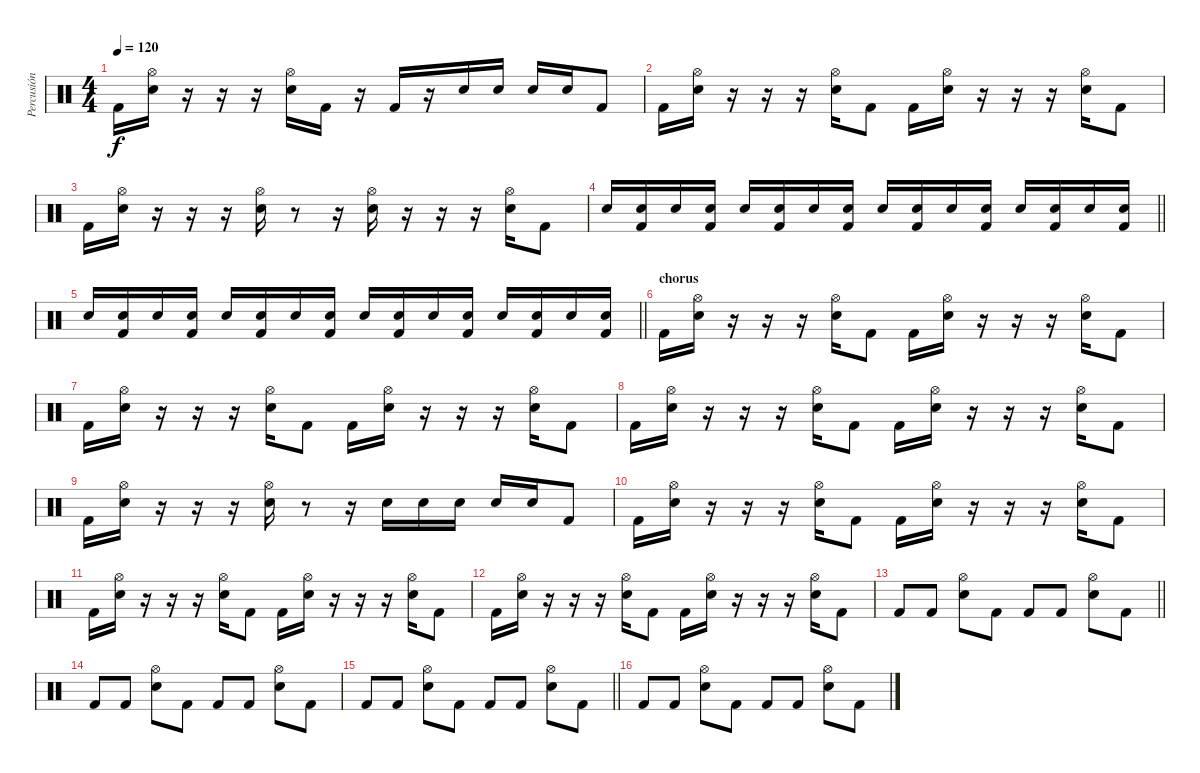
\track ("Percusión" "Percusión") {instrument percussion}
\staff {score}
\articulation defaults
\ts (4 4)
\tempo 120
\clef neutral
\ks c "Kick (hit) 2".16{dy f}
("Hi-Hat (open)" "Electric Snare (hit)").16 r.16 r.16 r.16 ("Hi-Hat (open)" "Electric Snare (hit)").16 "Kick (hit) 2".16 r.16 "Kick (hit) 2".16 r.16 "Electric Snare (hit)".16 "Electric Snare (hit)".16 "Electric Snare (hit)".16 "Electric Snare (hit)".16 "Kick (hit) 2".8 |
"Kick (hit) 2".16 ("Hi-Hat (open)" "Electric Snare (hit)").16 r.16 r.16 r.16 ("Hi-Hat (open)" "Electric Snare (hit)").16 "Kick (hit) 2".8 "Kick (hit) 2".16 ("Hi-Hat (open)" "Electric Snare (hit)").16 r.16 r.16 r.16 ("Hi-Hat (open)" "Electric Snare (hit)").16 "Kick (hit) 2".8 |
"Kick (hit) 2".16 ("Hi-Hat (open)" "Electric Snare (hit)").16 r.16 r.16 r.16 ("Hi-Hat (open)" "Electric Snare (hit)").16 r.8 r.16 ("Hi-Hat (open)" "Electric Snare (hit)").16 r.16 r.16 r.16 ("Hi-Hat (open)" "Electric Snare (hit)").16 "Kick (hit) 2".8 |
\barLineRight lightlight "Electric Snare (hit)".16{volume 8}
("Electric Snare (hit)" "Kick (hit) 2").16{volume 16} "Electric Snare (hit)".16 ("Electric Snare (hit)" "Kick (hit) 2").16 "Electric Snare (hit)".16 ("Electric Snare (hit)" "Kick (hit) 2").16 "Electric Snare (hit)".16 ("Electric Snare (hit)" "Kick (hit) 2").16 "Electric Snare (hit)".16 ("Electric Snare (hit)" "Kick (hit) 2").16 "Electric Snare (hit)".16 ("Electric Snare (hit)" "Kick (hit) 2").16 "Electric Snare (hit)".16 ("Electric Snare (hit)" "Kick (hit) 2").16 "Electric Snare (hit)".16 ("Electric Snare (hit)" "Kick (hit) 2").16 |
\barLineRight lightlight "Electric Snare (hit)".16
("Electric Snare (hit)" "Kick (hit) 2").16 "Electric Snare (hit)".16 ("Electric Snare (hit)" "Kick (hit) 2").16 "Electric Snare (hit)".16 ("Electric Snare (hit)" "Kick (hit) 2").16 "Electric Snare (hit)".16 ("Electric Snare (hit)" "Kick (hit) 2").16 "Electric Snare (hit)".16 ("Electric Snare (hit)" "Kick (hit) 2").16 "Electric Snare (hit)".16 ("Electric Snare (hit)" "Kick (hit) 2").16 "Electric Snare (hit)".16 ("Electric Snare (hit)" "Kick (hit) 2").16 "Electric Snare (hit)".16 ("Electric Snare (hit)" "Kick (hit) 2").16 |
\section ("" "chorus")
"Kick (hit) 2".16 ("Hi-Hat (open)" "Electric Snare (hit)").16 r.16 r.16 r.16 ("Hi-Hat (open)" "Electric Snare (hit)").16 "Kick (hit) 2".8 "Kick (hit) 2".16 ("Hi-Hat (open)" "Electric Snare (hit)").16 r.16 r.16 r.16 ("Hi-Hat (open)" "Electric Snare (hit)").16 "Kick (hit) 2".8 |
"Kick (hit) 2".16 ("Hi-Hat (open)" "Electric Snare (hit)").16 r.16 r.16 r.16 ("Hi-Hat (open)" "Electric Snare (hit)").16 "Kick (hit) 2".8 "Kick (hit) 2".16 ("Hi-Hat (open)" "Electric Snare (hit)").16 r.16 r.16 r.16 ("Hi-Hat (open)" "Electric Snare (hit)").16 "Kick (hit) 2".8 |
"Kick (hit) 2".16 ("Hi-Hat (open)" "Electric Snare (hit)").16 r.16 r.16 r.16 ("Hi-Hat (open)" "Electric Snare (hit)").16 "Kick (hit) 2".8 "Kick (hit) 2".16 ("Hi-Hat (open)" "Electric Snare (hit)").16 r.16 r.16 r.16 ("Hi-Hat (open)" "Electric Snare (hit)").16 "Kick (hit) 2".8 |
"Kick (hit) 2".16 ("Hi-Hat (open)" "Electric Snare (hit)").16 r.16 r.16 r.16 ("Hi-Hat (open)" "Electric Snare (hit)").16 r.8 r.16 "Electric Snare (hit)".16 "Electric Snare (hit)".16 "Electric Snare (hit)".16 "Electric Snare (hit)".16 "Electric Snare (hit)".16 "Kick (hit) 2".8 |
"Kick (hit) 2".16 ("Hi-Hat (open)" "Electric Snare (hit)").16 r.16 r.16 r.16 ("Hi-Hat (open)" "Electric Snare (hit)").16 "Kick (hit) 2".8 "Kick (hit) 2".16 ("Hi-Hat (open)" "Electric Snare (hit)").16 r.16 r.16 r.16 ("Hi-Hat (open)" "Electric Snare (hit)").16 "Kick (hit) 2".8 |
"Kick (hit) 2".16 ("Hi-Hat (open)" "Electric Snare (hit)").16 r.16 r.16 r.16 ("Hi-Hat (open)" "Electric Snare (hit)").16 "Kick (hit) 2".8 "Kick (hit) 2".16 ("Hi-Hat (open)" "Electric Snare (hit)").16 r.16 r.16 r.16 ("Hi-Hat (open)" "Electric Snare (hit)").16 "Kick (hit) 2".8 |
"Kick (hit) 2".16 ("Hi-Hat (open)" "Electric Snare (hit)").16 r.16 r.16 r.16 ("Hi-Hat (open)" "Electric Snare (hit)").16 "Kick (hit) 2".8 "Kick (hit) 2".16 ("Hi-Hat (open)" "Electric Snare (hit)").16 r.16 r.16 r.16 ("Hi-Hat (open)" "Electric Snare (hit)").16 "Kick (hit) 2".8 |
\barLineRight lightlight "Kick (hit) 2".8 "Kick (hit) 2".8
("Hi-Hat (open)" "Electric Snare (hit)").8 "Kick (hit) 2".8 "Kick (hit) 2".8 "Kick (hit) 2".8 ("Hi-Hat (open)" "Electric Snare (hit)").8 "Kick (hit) 2".8 |
"Kick (hit) 2".8 "Kick (hit) 2".8 ("Hi-Hat (open)" "Electric Snare (hit)").8 "Kick (hit) 2".8 "Kick (hit) 2".8 "Kick (hit) 2".8 ("Hi-Hat (open)" "Electric Snare (hit)").8 "Kick (hit) 2".8 |
\barLineRight lightlight "Kick (hit) 2".8 "Kick (hit) 2".8
("Hi-Hat (open)" "Electric Snare (hit)").8 "Kick (hit) 2".8 "Kick (hit) 2".8 "Kick (hit) 2".8 ("Hi-Hat (open)" "Electric Snare (hit)").8 "Kick (hit) 2".8 |
"Kick (hit) 2".8 "Kick (hit) 2".8 ("Hi-Hat (open)" "Electric Snare (hit)").8 "Kick (hit) 2".8 "Kick (hit) 2".8 "Kick (hit) 2".8 ("Hi-Hat (open)" "Electric Snare (hit)").8 "Kick (hit) 2".8
